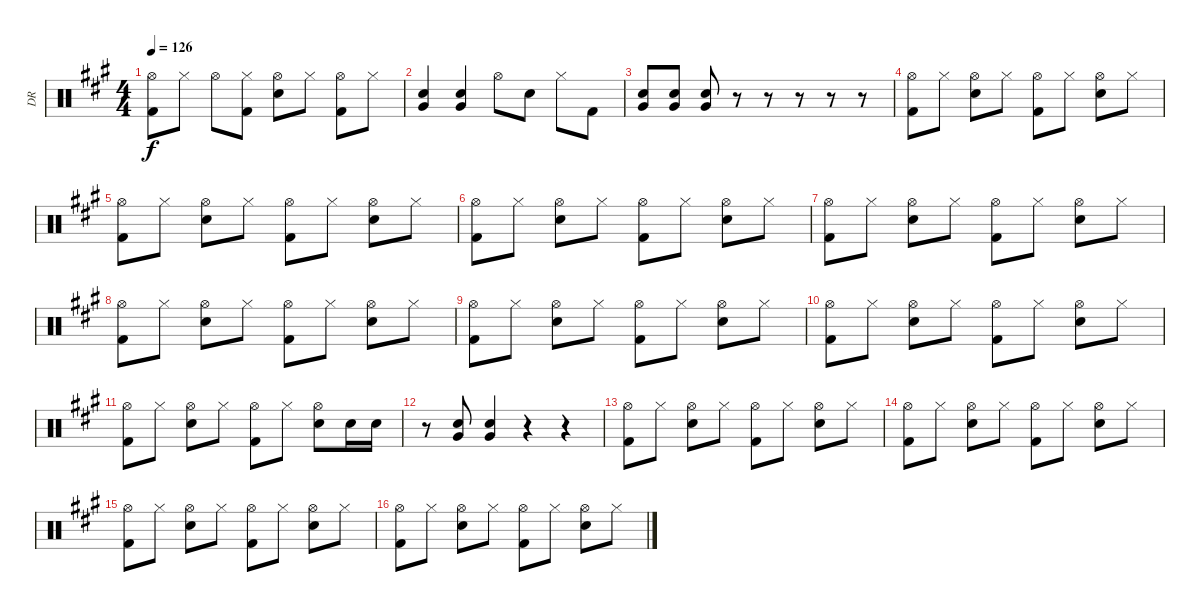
\track ("DR" "DR") {instrument percussion}
\staff {score}
\articulation defaults
\ts (4 4)
\tempo 126
\clef neutral
\ks f#minor
("Hi-Hat (open)" "Kick (hit) 2").8{dy f} "Hi-Hat (closed)".8 "Hi-Hat (open)".8 ("Hi-Hat (closed)" "Kick (hit) 2").8 ("Hi-Hat (open)" "Electric Snare (hit)").8 "Hi-Hat (closed)".8 ("Hi-Hat (open)" "Kick (hit) 2").8 "Hi-Hat (closed)".8 |
("Very Low Tom (hit)" "Electric Snare (hit)").4 ("Very Low Tom (hit)" "Electric Snare (hit)").4 "Hi-Hat (open)".8 "Electric Snare (hit)".8 "Hi-Hat (closed)".8 "Kick (hit) 2".8 |
("Very Low Tom (hit)" "Electric Snare (hit)").8 ("Very Low Tom (hit)" "Electric Snare (hit)").8 ("Very Low Tom (hit)" "Electric Snare (hit)").8 r.8 r.8 r.8 r.8 r.8 |
("Hi-Hat (open)" "Kick (hit) 2").8 "Hi-Hat (closed)".8 ("Hi-Hat (open)" "Electric Snare (hit)").8 "Hi-Hat (closed)".8 ("Hi-Hat (open)" "Kick (hit) 2").8 "Hi-Hat (closed)".8 ("Hi-Hat (open)" "Electric Snare (hit)").8 "Hi-Hat (closed)".8 |
("Hi-Hat (open)" "Kick (hit) 2").8 "Hi-Hat (closed)".8 ("Hi-Hat (open)" "Electric Snare (hit)").8 "Hi-Hat (closed)".8 ("Hi-Hat (open)" "Kick (hit) 2").8 "Hi-Hat (closed)".8 ("Hi-Hat (open)" "Electric Snare (hit)").8 "Hi-Hat (closed)".8 |
("Hi-Hat (open)" "Kick (hit) 2").8 "Hi-Hat (closed)".8 ("Hi-Hat (open)" "Electric Snare (hit)").8 "Hi-Hat (closed)".8 ("Hi-Hat (open)" "Kick (hit) 2").8 "Hi-Hat (closed)".8 ("Hi-Hat (open)" "Electric Snare (hit)").8 "Hi-Hat (closed)".8 |
("Hi-Hat (open)" "Kick (hit) 2").8 "Hi-Hat (closed)".8 ("Hi-Hat (open)" "Electric Snare (hit)").8 "Hi-Hat (closed)".8 ("Hi-Hat (open)" "Kick (hit) 2").8 "Hi-Hat (closed)".8 ("Hi-Hat (open)" "Electric Snare (hit)").8 "Hi-Hat (closed)".8 |
("Hi-Hat (open)" "Kick (hit) 2").8 "Hi-Hat (closed)".8 ("Hi-Hat (open)" "Electric Snare (hit)").8 "Hi-Hat (closed)".8 ("Hi-Hat (open)" "Kick (hit) 2").8 "Hi-Hat (closed)".8 ("Hi-Hat (open)" "Electric Snare (hit)").8 "Hi-Hat (closed)".8 |
("Hi-Hat (open)" "Kick (hit) 2").8 "Hi-Hat (closed)".8 ("Hi-Hat (open)" "Electric Snare (hit)").8 "Hi-Hat (closed)".8 ("Hi-Hat (open)" "Kick (hit) 2").8 "Hi-Hat (closed)".8 ("Hi-Hat (open)" "Electric Snare (hit)").8 "Hi-Hat (closed)".8 |
("Hi-Hat (open)" "Kick (hit) 2").8 "Hi-Hat (closed)".8 ("Hi-Hat (open)" "Electric Snare (hit)").8 "Hi-Hat (closed)".8 ("Hi-Hat (open)" "Kick (hit) 2").8 "Hi-Hat (closed)".8 ("Hi-Hat (open)" "Electric Snare (hit)").8 "Hi-Hat (closed)".8 |
("Hi-Hat (open)" "Kick (hit) 2").8 "Hi-Hat (closed)".8 ("Hi-Hat (open)" "Electric Snare (hit)").8 "Hi-Hat (closed)".8 ("Hi-Hat (open)" "Kick (hit) 2").8 "Hi-Hat (closed)".8 ("Hi-Hat (open)" "Electric Snare (hit)").8 "Electric Snare (hit)".16 "Electric Snare (hit)".16 |
r.8 ("Very Low Tom (hit)" "Electric Snare (hit)").8 ("Very Low Tom (hit)" "Electric Snare (hit)").4 r.4 r.4 |
("Hi-Hat (open)" "Kick (hit) 2").8 "Hi-Hat (closed)".8 ("Hi-Hat (open)" "Electric Snare (hit)").8 "Hi-Hat (closed)".8 ("Hi-Hat (open)" "Kick (hit) 2").8 "Hi-Hat (closed)".8 ("Hi-Hat (open)" "Electric Snare (hit)").8 "Hi-Hat (closed)".8 |
("Hi-Hat (open)" "Kick (hit) 2").8 "Hi-Hat (closed)".8 ("Hi-Hat (open)" "Electric Snare (hit)").8 "Hi-Hat (closed)".8 ("Hi-Hat (open)" "Kick (hit) 2").8 "Hi-Hat (closed)".8 ("Hi-Hat (open)" "Electric Snare (hit)").8 "Hi-Hat (closed)".8 |
("Hi-Hat (open)" "Kick (hit) 2").8 "Hi-Hat (closed)".8 ("Hi-Hat (open)" "Electric Snare (hit)").8 "Hi-Hat (closed)".8 ("Hi-Hat (open)" "Kick (hit) 2").8 "Hi-Hat (closed)".8 ("Hi-Hat (open)" "Electric Snare (hit)").8 "Hi-Hat (closed)".8 |
("Hi-Hat (open)" "Kick (hit) 2").8 "Hi-Hat (closed)".8 ("Hi-Hat (open)" "Electric Snare (hit)").8 "Hi-Hat (closed)".8 ("Hi-Hat (open)" "Kick (hit) 2").8 "Hi-Hat (closed)".8 ("Hi-Hat (open)" "Electric Snare (hit)").8 "Hi-Hat (closed)".8
